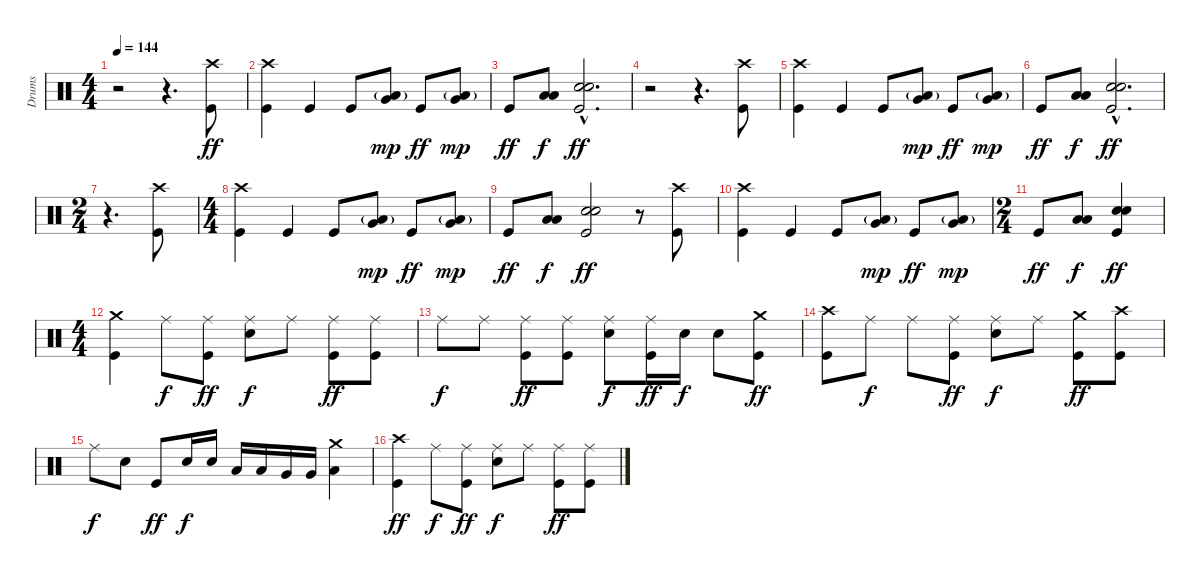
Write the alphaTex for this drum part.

\track ("Drums" "Drums") {instrument percussion}
\staff {score}
\articulation defaults
\ts (4 4)
\tempo 144
\clef neutral
\ks c
r.2{dy ff} r.4{d} ("Crash high (hit)" "Kick (hit)").8 |
("Crash high (hit)" "Kick (hit)").4 "Kick (hit)".4 "Kick (hit)".8 ("Very Low Tom (hit)" "Low Floor Tom (hit)"{g}).8{dy mp} "Kick (hit)".8{dy ff} ("Very Low Tom (hit)" "Low Floor Tom (hit)"{g}).8{dy mp} |
"Kick (hit)".8{dy ff} ("Low Floor Tom (hit)" "Low Floor Tom (hit)").8{dy f} ("Snare (hit) 2"{hac} "Snare (hit) 2"{hac} "Kick (hit)"{hac}).2{d dy ff} |
r.2 r.4{d} ("Crash high (hit)" "Kick (hit)").8 |
("Crash high (hit)" "Kick (hit)").4 "Kick (hit)".4 "Kick (hit)".8 ("Very Low Tom (hit)" "Low Floor Tom (hit)"{g}).8{dy mp} "Kick (hit)".8{dy ff} ("Very Low Tom (hit)" "Low Floor Tom (hit)"{g}).8{dy mp} |
"Kick (hit)".8{dy ff} ("Low Floor Tom (hit)" "Low Floor Tom (hit)").8{dy f} ("Snare (hit) 2"{hac} "Snare (hit) 2"{hac} "Kick (hit)"{hac}).2{d dy ff} |
\ts (2 4)
r.4{d} ("Crash high (hit)" "Kick (hit)").8 |
\ts (4 4)
("Crash high (hit)" "Kick (hit)").4 "Kick (hit)".4 "Kick (hit)".8 ("Very Low Tom (hit)" "Low Floor Tom (hit)"{g}).8{dy mp} "Kick (hit)".8{dy ff} ("Very Low Tom (hit)" "Low Floor Tom (hit)"{g}).8{dy mp} |
"Kick (hit)".8{dy ff} ("Low Floor Tom (hit)" "Low Floor Tom (hit)").8{dy f} ("Snare (hit) 2" "Snare (hit) 2" "Kick (hit)").2{dy ff} r.8 ("Crash high (hit)" "Kick (hit)").8 |
("Crash high (hit)" "Kick (hit)").4 "Kick (hit)".4 "Kick (hit)".8 ("Very Low Tom (hit)" "Low Floor Tom (hit)"{g}).8{dy mp} "Kick (hit)".8{dy ff} ("Very Low Tom (hit)" "Low Floor Tom (hit)"{g}).8{dy mp} |
\ts (2 4)
"Kick (hit)".8{dy ff} ("Low Floor Tom (hit)" "Low Floor Tom (hit)").8{dy f} ("Snare (hit) 2" "Snare (hit) 2" "Kick (hit)").4{dy ff} |
\ts (4 4)
("Crash medium (hit)" "Kick (hit)").4 "Ride (middle)".8{dy f} ("Ride (middle)" "Kick (hit)").8{dy ff} ("Ride (middle)" "Snare (hit) 2").8{dy f} "Ride (middle)".8 ("Ride (middle)" "Kick (hit)").8{dy ff} ("Ride (middle)" "Kick (hit)").8 |
"Ride (middle)".8{dy f} "Ride (middle)".8 ("Ride (middle)" "Kick (hit)").8{dy ff} ("Ride (middle)" "Kick (hit)").8 ("Ride (middle)" "Snare (hit) 2").8{dy f} ("Ride (middle)" "Kick (hit)").16{dy ff} "Snare (hit) 2".16{dy f} "Snare (hit) 2".8 ("Crash medium (hit)" "Kick (hit)").8{dy ff} |
("Crash high (hit)" "Kick (hit)").8 "Ride (middle)".8{dy f} "Ride (middle)".8 ("Ride (middle)" "Kick (hit)").8{dy ff} ("Ride (middle)" "Snare (hit) 2").8{dy f} "Ride (middle)".8 ("Crash medium (hit)" "Kick (hit)").8{dy ff} ("Crash high (hit)" "Kick (hit)").8 |
"Ride (middle)".8{dy f} "Snare (hit) 2".8 "Kick (hit)".8{dy ff} "Snare (hit) 2".16{dy f} "Snare (hit) 2".16 "Low Tom (hit)".16 "Low Tom (hit)".16 "Very Low Tom (hit)".16 "Very Low Tom (hit)".16 ("Crash medium (hit)" "Low Floor Tom (hit)").4 |
("Crash high (hit)" "Kick (hit)").4{dy ff} "Ride (middle)".8{dy f} ("Ride (middle)" "Kick (hit)").8{dy ff} ("Ride (middle)" "Snare (hit) 2").8{dy f} "Ride (middle)".8 ("Ride (middle)" "Kick (hit)").8{dy ff} ("Ride (middle)" "Kick (hit)").8
